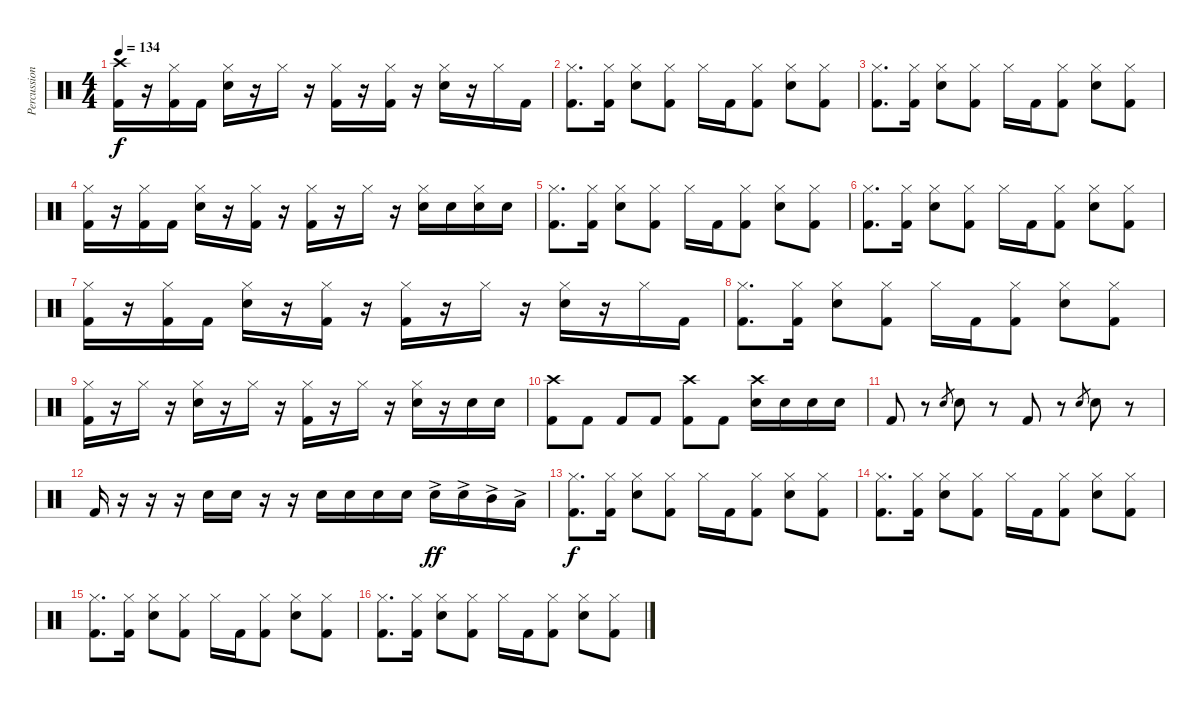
\track ("Percussion" "Percussion") {instrument percussion}
\staff {score}
\articulation defaults
\ts (4 4)
\tempo 134
\clef neutral
\ks c
("Crash high (hit)" "Kick (hit) 2").16{dy f} r.16 ("Hi-Hat (closed)" "Kick (hit) 2").16 "Kick (hit) 2".16 ("Hi-Hat (closed)" "Snare (hit) 2").16 r.16 "Hi-Hat (closed)".16 r.16 ("Hi-Hat (closed)" "Kick (hit) 2").16 r.16 ("Hi-Hat (closed)" "Kick (hit) 2").16 r.16 ("Hi-Hat (closed)" "Snare (hit) 2").16 r.16 "Hi-Hat (closed)".16 "Kick (hit) 2".16 |
("Hi-Hat (closed)" "Kick (hit) 2").8{d} ("Hi-Hat (closed)" "Kick (hit) 2").16 ("Hi-Hat (closed)" "Snare (hit) 2").8 ("Hi-Hat (closed)" "Kick (hit) 2").8 "Hi-Hat (closed)".16 "Kick (hit) 2".16 ("Hi-Hat (closed)" "Kick (hit) 2").8 ("Hi-Hat (closed)" "Snare (hit) 2").8 ("Hi-Hat (closed)" "Kick (hit) 2").8 |
("Hi-Hat (closed)" "Kick (hit) 2").8{d} ("Hi-Hat (closed)" "Kick (hit) 2").16 ("Hi-Hat (closed)" "Snare (hit) 2").8 ("Hi-Hat (closed)" "Kick (hit) 2").8 "Hi-Hat (closed)".16 "Kick (hit) 2".16 ("Hi-Hat (closed)" "Kick (hit) 2").8 ("Hi-Hat (closed)" "Snare (hit) 2").8 ("Hi-Hat (closed)" "Kick (hit) 2").8 |
("Hi-Hat (closed)" "Kick (hit) 2").16 r.16 ("Hi-Hat (closed)" "Kick (hit) 2").16 "Kick (hit) 2".16 ("Hi-Hat (closed)" "Snare (hit) 2").16 r.16 ("Hi-Hat (closed)" "Kick (hit) 2").16 r.16 ("Hi-Hat (closed)" "Kick (hit) 2").16 r.16 "Hi-Hat (closed)".16 r.16 ("Hi-Hat (closed)" "Snare (hit) 2").16 "Snare (hit) 2".16 ("Hi-Hat (closed)" "Snare (hit) 2").16 "Snare (hit) 2".16 |
("Hi-Hat (closed)" "Kick (hit) 2").8{d} ("Hi-Hat (closed)" "Kick (hit) 2").16 ("Hi-Hat (closed)" "Snare (hit) 2").8 ("Hi-Hat (closed)" "Kick (hit) 2").8 "Hi-Hat (closed)".16 "Kick (hit) 2".16 ("Hi-Hat (closed)" "Kick (hit) 2").8 ("Hi-Hat (closed)" "Snare (hit) 2").8 ("Hi-Hat (closed)" "Kick (hit) 2").8 |
("Hi-Hat (closed)" "Kick (hit) 2").8{d} ("Hi-Hat (closed)" "Kick (hit) 2").16 ("Hi-Hat (closed)" "Snare (hit) 2").8 ("Hi-Hat (closed)" "Kick (hit) 2").8 "Hi-Hat (closed)".16 "Kick (hit) 2".16 ("Hi-Hat (closed)" "Kick (hit) 2").8 ("Hi-Hat (closed)" "Snare (hit) 2").8 ("Hi-Hat (closed)" "Kick (hit) 2").8 |
("Hi-Hat (closed)" "Kick (hit) 2").16 r.16 ("Hi-Hat (closed)" "Kick (hit) 2").16 "Kick (hit) 2".16 ("Hi-Hat (closed)" "Snare (hit) 2").16 r.16 ("Hi-Hat (closed)" "Kick (hit) 2").16 r.16 ("Hi-Hat (closed)" "Kick (hit) 2").16 r.16 "Hi-Hat (closed)".16 r.16 ("Hi-Hat (closed)" "Snare (hit) 2").16 r.16 "Hi-Hat (closed)".16 "Kick (hit) 2".16 |
("Hi-Hat (closed)" "Kick (hit) 2").8{d} ("Hi-Hat (closed)" "Kick (hit) 2").16 ("Hi-Hat (closed)" "Snare (hit) 2").8 ("Hi-Hat (closed)" "Kick (hit) 2").8 "Hi-Hat (closed)".16 "Kick (hit) 2".16 ("Hi-Hat (closed)" "Kick (hit) 2").8 ("Hi-Hat (closed)" "Snare (hit) 2").8 ("Hi-Hat (closed)" "Kick (hit) 2").8 |
("Hi-Hat (closed)" "Kick (hit) 2").16 r.16 "Hi-Hat (closed)".16 r.16 ("Hi-Hat (closed)" "Snare (hit) 2").16 r.16 "Hi-Hat (closed)".16 r.16 ("Hi-Hat (closed)" "Kick (hit) 2").16 r.16 "Hi-Hat (closed)".16 r.16 ("Hi-Hat (closed)" "Snare (hit) 2").16 r.16 "Snare (hit) 2".16 "Snare (hit) 2".16 |
("Crash high (hit)" "Kick (hit) 2").8 "Kick (hit) 2".8 "Kick (hit) 2".8 "Kick (hit) 2".8 ("Crash high (hit)" "Kick (hit) 2").8 "Kick (hit) 2".8 ("Crash high (hit)" "Snare (hit) 2").16 "Snare (hit) 2".16 "Snare (hit) 2".16 "Snare (hit) 2".16 |
"Kick (hit) 2".8 r.8 "Snare (hit) 2".8{gr} "Snare (hit) 2".8 r.8 "Kick (hit) 2".8 r.8 "Snare (hit) 2".8{gr} "Snare (hit) 2".8 r.8 |
"Kick (hit) 2".16 r.16 r.16 r.16 "Snare (hit) 2".16 "Snare (hit) 2".16 r.16 r.16 "Snare (hit) 2".16 "Snare (hit) 2".16 "Snare (hit) 2".16 "Snare (hit) 2".16 "Snare (hit) 2"{ac}.16{dy ff} "Snare (hit) 2"{ac}.16 "Mid Tom (hit)"{ac}.16{balance 0} "Low Tom (hit)"{ac}.16{balance 16} |
("Hi-Hat (closed)" "Kick (hit) 2").8{d dy f balance 8} ("Hi-Hat (closed)" "Kick (hit) 2").16 ("Hi-Hat (closed)" "Snare (hit) 2").8 ("Hi-Hat (closed)" "Kick (hit) 2").8 "Hi-Hat (closed)".16 "Kick (hit) 2".16 ("Hi-Hat (closed)" "Kick (hit) 2").8 ("Hi-Hat (closed)" "Snare (hit) 2").8 ("Hi-Hat (closed)" "Kick (hit) 2").8 |
("Hi-Hat (closed)" "Kick (hit) 2").8{d} ("Hi-Hat (closed)" "Kick (hit) 2").16 ("Hi-Hat (closed)" "Snare (hit) 2").8 ("Hi-Hat (closed)" "Kick (hit) 2").8 "Hi-Hat (closed)".16 "Kick (hit) 2".16 ("Hi-Hat (closed)" "Kick (hit) 2").8 ("Hi-Hat (closed)" "Snare (hit) 2").8 ("Hi-Hat (closed)" "Kick (hit) 2").8 |
("Hi-Hat (closed)" "Kick (hit) 2").8{d} ("Hi-Hat (closed)" "Kick (hit) 2").16 ("Hi-Hat (closed)" "Snare (hit) 2").8 ("Hi-Hat (closed)" "Kick (hit) 2").8 "Hi-Hat (closed)".16 "Kick (hit) 2".16 ("Hi-Hat (closed)" "Kick (hit) 2").8 ("Hi-Hat (closed)" "Snare (hit) 2").8 ("Hi-Hat (closed)" "Kick (hit) 2").8 |
("Hi-Hat (closed)" "Kick (hit) 2").8{d} ("Hi-Hat (closed)" "Kick (hit) 2").16 ("Hi-Hat (closed)" "Snare (hit) 2").8 ("Hi-Hat (closed)" "Kick (hit) 2").8 "Hi-Hat (closed)".16 "Kick (hit) 2".16 ("Hi-Hat (closed)" "Kick (hit) 2").8 ("Hi-Hat (closed)" "Snare (hit) 2").8 ("Hi-Hat (closed)" "Kick (hit) 2").8
